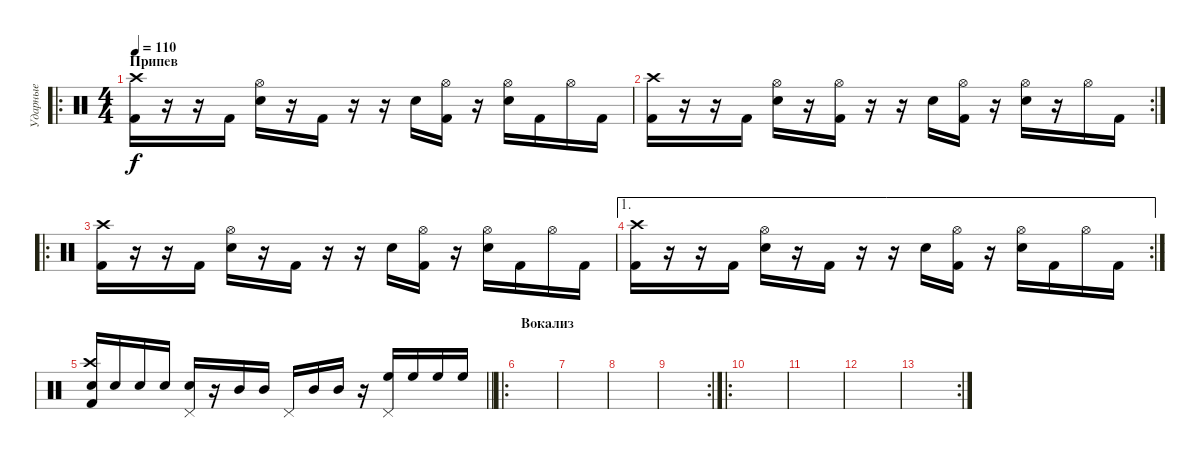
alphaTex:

\track ("Ударные" "Ударные") {instrument percussion}
\staff {score}
\articulation defaults
\ro
\ts (4 4)
\section ("" "Припев")
\tempo 110
\clef neutral
\ks c
("Kick (hit) 2" "Crash high (hit)").16{dy f} r.16 r.16 "Kick (hit) 2".16 ("Electric Snare (hit)" "Hi-Hat (open)").16 r.16 "Kick (hit) 2".16 r.16 r.16 "Electric Snare (hit)".16 ("Kick (hit) 2" "Hi-Hat (open)").16 r.16 ("Electric Snare (hit)" "Hi-Hat (open)").16 "Kick (hit) 2".16 "Hi-Hat (open)".16 "Kick (hit) 2".16 |
\rc 2
("Kick (hit) 2" "Crash high (hit)").16 r.16 r.16 "Kick (hit) 2".16 ("Electric Snare (hit)" "Hi-Hat (open)").16 r.16 ("Kick (hit) 2" "Hi-Hat (open)").16 r.16 r.16 "Electric Snare (hit)".16 ("Kick (hit) 2" "Hi-Hat (open)").16 r.16 ("Electric Snare (hit)" "Hi-Hat (open)").16 r.16 "Hi-Hat (open)".16 "Kick (hit) 2".16 |
\ro
("Kick (hit) 2" "Crash high (hit)").16 r.16 r.16 "Kick (hit) 2".16 ("Electric Snare (hit)" "Hi-Hat (open)").16 r.16 "Kick (hit) 2".16 r.16 r.16 "Electric Snare (hit)".16 ("Kick (hit) 2" "Hi-Hat (open)").16 r.16 ("Electric Snare (hit)" "Hi-Hat (open)").16 "Kick (hit) 2".16 "Hi-Hat (open)".16 "Kick (hit) 2".16 |
\ae 1
\rc 2
("Kick (hit) 2" "Crash high (hit)").16 r.16 r.16 "Kick (hit) 2".16 ("Electric Snare (hit)" "Hi-Hat (open)").16 r.16 "Kick (hit) 2".16 r.16 r.16 "Electric Snare (hit)".16 ("Kick (hit) 2" "Hi-Hat (open)").16 r.16 ("Electric Snare (hit)" "Hi-Hat (open)").16 "Kick (hit) 2".16 "Hi-Hat (open)".16 "Kick (hit) 2".16 |
\barLineRight lightlight
("Kick (hit) 2" "Electric Snare (hit)" "Crash high (hit)").16 "Electric Snare (hit)".16 "Electric Snare (hit)".16 "Electric Snare (hit)".16 ("Electric Snare (hit)" "Pedal Hi-Hat (hit)").16 r.16 "Mid Tom (hit)".16 "Mid Tom (hit)".16 "Pedal Hi-Hat (hit)".16 "Mid Tom (hit)".16 "Mid Tom (hit)".16 r.16 ("High Floor Tom (hit)" "Pedal Hi-Hat (hit)").16 "High Floor Tom (hit)".16 "High Floor Tom (hit)".16 "High Floor Tom (hit)".16 |
\ro
\section ("" "Вокализ")
|
|
|
\rc 2
|
\ro
|
|
|
\rc 2
